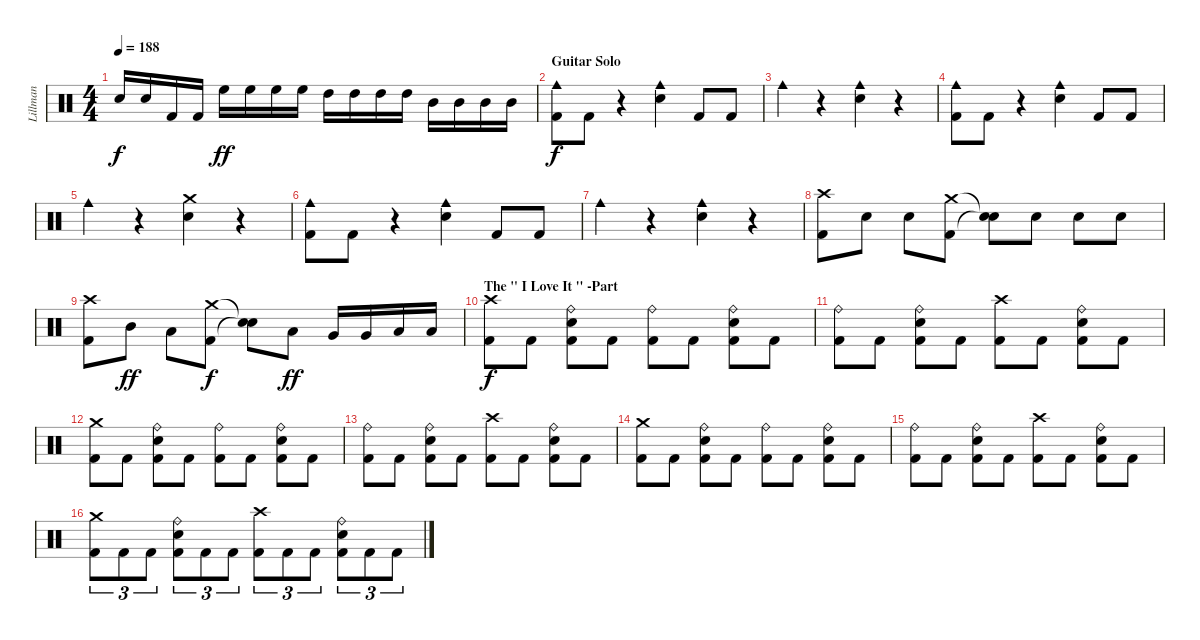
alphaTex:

\track ("Lillman" "Lillman") {instrument percussion}
\staff {score}
\articulation defaults
\ts (4 4)
\tempo 188
\clef neutral
\ks c "Snare (hit) 2".16{dy f} "Snare (hit) 2".16 "Kick (hit) 2".16 "Kick (hit) 2".16 "High Floor Tom (hit)".16{dy ff} "High Floor Tom (hit)".16 "High Floor Tom (hit)".16 "High Floor Tom (hit)".16 "High Tom (hit)".16 "High Tom (hit)".16 "High Tom (hit)".16 "High Tom (hit)".16 "Mid Tom (hit)".16 "Mid Tom (hit)".16 "Mid Tom (hit)".16 "Mid Tom (hit)".16
|
\section ("" "Guitar Solo")
("Cowbell medium (hit)" "Kick (hit) 2").8{dy f} "Kick (hit) 2".8 r.4 ("Cowbell medium (hit)" "Snare (hit) 2").4 "Kick (hit) 2".8 "Kick (hit) 2".8 |
"Cowbell medium (hit)".4 r.4 ("Cowbell medium (hit)" "Snare (hit) 2").4 r.4 |
("Cowbell medium (hit)" "Kick (hit) 2").8 "Kick (hit) 2".8 r.4 ("Cowbell medium (hit)" "Snare (hit) 2").4 "Kick (hit) 2".8 "Kick (hit) 2".8 |
"Cowbell medium (hit)".4 r.4 ("Crash medium (hit)" "Snare (hit) 2").4 r.4 |
("Cowbell medium (hit)" "Kick (hit) 2").8 "Kick (hit) 2".8 r.4 ("Cowbell medium (hit)" "Snare (hit) 2").4 "Kick (hit) 2".8 "Kick (hit) 2".8 |
"Cowbell medium (hit)".4 r.4 ("Cowbell medium (hit)" "Snare (hit) 2").4 r.4 |
("Crash high (hit)" "Kick (hit) 2").8 "Snare (hit) 2".8 "Snare (hit) 2".8 ("Crash medium (hit)" "Kick (hit) 2").8 ("Snare (hit)"{t} "Snare (hit)"{t}).8 "Snare (hit) 2".8 "Snare (hit) 2".8 "Snare (hit) 2".8 |
("Crash high (hit)" "Kick (hit) 2").8 "Mid Tom (hit)".8{dy ff} "Low Tom (hit)".8 ("Crash medium (hit)" "Kick (hit) 2").8{dy f} ("Snare (hit)"{t} "Snare (hit)"{t}).8 "Low Tom (hit)".8{dy ff} "Very Low Tom (hit)".16 "Very Low Tom (hit)".16 "Low Floor Tom (hit)".16 "Low Floor Tom (hit)".16 |
\section ("" "The '' I Love It '' -Part")
("Crash high (hit)" "Kick (hit) 2").8{dy f} "Kick (hit) 2".8 ("Ride (bell)" "Snare (hit) 2" "Kick (hit) 2").8 "Kick (hit) 2".8 ("Ride (bell)" "Kick (hit) 2").8 "Kick (hit) 2".8 ("Ride (bell)" "Snare (hit) 2" "Kick (hit) 2").8 "Kick (hit) 2".8 |
("Ride (bell)" "Kick (hit) 2").8 "Kick (hit) 2".8 ("Ride (bell)" "Snare (hit) 2" "Kick (hit) 2").8 "Kick (hit) 2".8 ("Crash high (hit)" "Kick (hit) 2").8 "Kick (hit) 2".8 ("Ride (bell)" "Snare (hit) 2" "Kick (hit) 2").8 "Kick (hit) 2".8 |
("Crash medium (hit)" "Kick (hit) 2").8 "Kick (hit) 2".8 ("Ride (bell)" "Snare (hit) 2" "Kick (hit) 2").8 "Kick (hit) 2".8 ("Ride (bell)" "Kick (hit) 2").8 "Kick (hit) 2".8 ("Ride (bell)" "Snare (hit) 2" "Kick (hit) 2").8 "Kick (hit) 2".8 |
("Ride (bell)" "Kick (hit) 2").8 "Kick (hit) 2".8 ("Ride (bell)" "Snare (hit) 2" "Kick (hit) 2").8 "Kick (hit) 2".8 ("Crash high (hit)" "Kick (hit) 2").8 "Kick (hit) 2".8 ("Ride (bell)" "Snare (hit) 2" "Kick (hit) 2").8 "Kick (hit) 2".8 |
("Crash medium (hit)" "Kick (hit) 2").8 "Kick (hit) 2".8 ("Ride (bell)" "Snare (hit) 2" "Kick (hit) 2").8 "Kick (hit) 2".8 ("Ride (bell)" "Kick (hit) 2").8 "Kick (hit) 2".8 ("Ride (bell)" "Snare (hit) 2" "Kick (hit) 2").8 "Kick (hit) 2".8 |
("Ride (bell)" "Kick (hit) 2").8 "Kick (hit) 2".8 ("Ride (bell)" "Snare (hit) 2" "Kick (hit) 2").8 "Kick (hit) 2".8 ("Crash high (hit)" "Kick (hit) 2").8 "Kick (hit) 2".8 ("Ride (bell)" "Snare (hit) 2" "Kick (hit) 2").8 "Kick (hit) 2".8 |
("Crash medium (hit)" "Kick (hit) 2").8{tu (3 2)} "Kick (hit) 2".8{tu (3 2)} "Kick (hit) 2".8{tu (3 2)} ("Ride (bell)" "Snare (hit) 2" "Kick (hit) 2").8{tu (3 2)} "Kick (hit) 2".8{tu (3 2)} "Kick (hit) 2".8{tu (3 2)} ("Crash high (hit)" "Kick (hit) 2").8{tu (3 2)} "Kick (hit) 2".8{tu (3 2)} "Kick (hit) 2".8{tu (3 2)} ("Ride (bell)" "Snare (hit) 2" "Kick (hit) 2").8{tu (3 2)} "Kick (hit) 2".8{tu (3 2)} "Kick (hit) 2".8{tu (3 2)}
